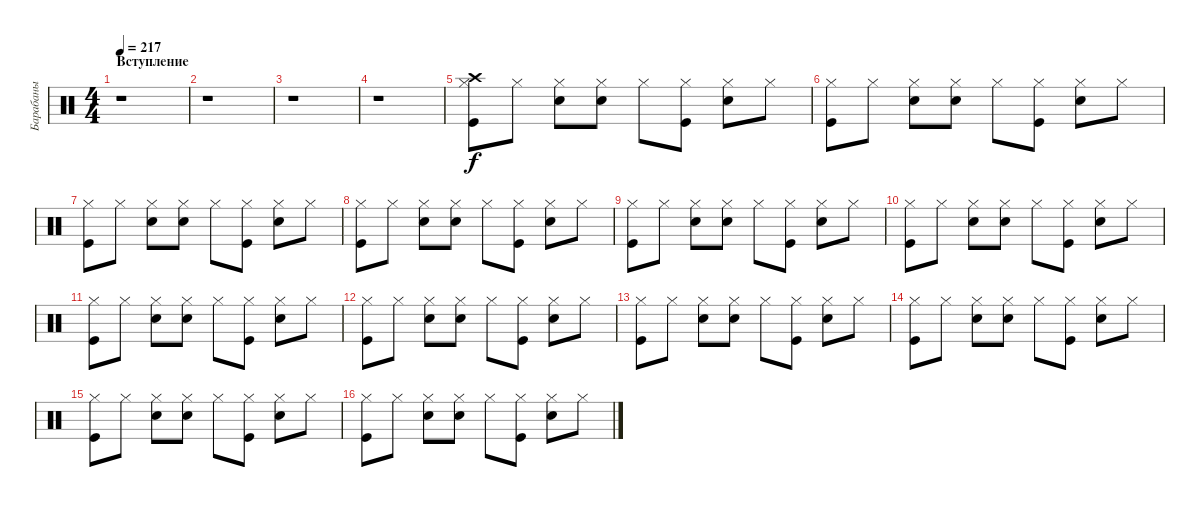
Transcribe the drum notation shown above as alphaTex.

\track ("Барабаны" "Барабаны") {instrument percussion}
\staff {score}
\articulation defaults
\ts (4 4)
\section ("" "Вступление")
\tempo 217
\clef neutral
\ks c
r.1{dy f} |
r.1 |
r.1 |
r.1 |
("Kick (hit)" "Hi-Hat (closed)" "Crash high (hit)").8 "Hi-Hat (closed)".8 ("Snare (hit) 2" "Hi-Hat (closed)").8 ("Snare (hit) 2" "Hi-Hat (closed)").8 "Hi-Hat (closed)".8 ("Kick (hit)" "Hi-Hat (closed)").8 ("Snare (hit) 2" "Hi-Hat (closed)").8 "Hi-Hat (closed)".8 |
("Kick (hit)" "Hi-Hat (closed)").8 "Hi-Hat (closed)".8 ("Snare (hit) 2" "Hi-Hat (closed)").8 ("Snare (hit) 2" "Hi-Hat (closed)").8 "Hi-Hat (closed)".8 ("Kick (hit)" "Hi-Hat (closed)").8 ("Snare (hit) 2" "Hi-Hat (closed)").8 "Hi-Hat (closed)".8 |
("Kick (hit)" "Hi-Hat (closed)").8 "Hi-Hat (closed)".8 ("Snare (hit) 2" "Hi-Hat (closed)").8 ("Snare (hit) 2" "Hi-Hat (closed)").8 "Hi-Hat (closed)".8 ("Kick (hit)" "Hi-Hat (closed)").8 ("Snare (hit) 2" "Hi-Hat (closed)").8 "Hi-Hat (closed)".8 |
("Kick (hit)" "Hi-Hat (closed)").8 "Hi-Hat (closed)".8 ("Snare (hit) 2" "Hi-Hat (closed)").8 ("Snare (hit) 2" "Hi-Hat (closed)").8 "Hi-Hat (closed)".8 ("Kick (hit)" "Hi-Hat (closed)").8 ("Snare (hit) 2" "Hi-Hat (closed)").8 "Hi-Hat (closed)".8 |
("Kick (hit)" "Hi-Hat (closed)").8 "Hi-Hat (closed)".8 ("Snare (hit) 2" "Hi-Hat (closed)").8 ("Snare (hit) 2" "Hi-Hat (closed)").8 "Hi-Hat (closed)".8 ("Kick (hit)" "Hi-Hat (closed)").8 ("Snare (hit) 2" "Hi-Hat (closed)").8 "Hi-Hat (closed)".8 |
("Kick (hit)" "Hi-Hat (closed)").8 "Hi-Hat (closed)".8 ("Snare (hit) 2" "Hi-Hat (closed)").8 ("Snare (hit) 2" "Hi-Hat (closed)").8 "Hi-Hat (closed)".8 ("Kick (hit)" "Hi-Hat (closed)").8 ("Snare (hit) 2" "Hi-Hat (closed)").8 "Hi-Hat (closed)".8 |
("Kick (hit)" "Hi-Hat (closed)").8 "Hi-Hat (closed)".8 ("Snare (hit) 2" "Hi-Hat (closed)").8 ("Snare (hit) 2" "Hi-Hat (closed)").8 "Hi-Hat (closed)".8 ("Kick (hit)" "Hi-Hat (closed)").8 ("Snare (hit) 2" "Hi-Hat (closed)").8 "Hi-Hat (closed)".8 |
("Kick (hit)" "Hi-Hat (closed)").8 "Hi-Hat (closed)".8 ("Snare (hit) 2" "Hi-Hat (closed)").8 ("Snare (hit) 2" "Hi-Hat (closed)").8 "Hi-Hat (closed)".8 ("Kick (hit)" "Hi-Hat (closed)").8 ("Snare (hit) 2" "Hi-Hat (closed)").8 "Hi-Hat (closed)".8 |
("Kick (hit)" "Hi-Hat (closed)").8 "Hi-Hat (closed)".8 ("Snare (hit) 2" "Hi-Hat (closed)").8 ("Snare (hit) 2" "Hi-Hat (closed)").8 "Hi-Hat (closed)".8 ("Kick (hit)" "Hi-Hat (closed)").8 ("Snare (hit) 2" "Hi-Hat (closed)").8 "Hi-Hat (closed)".8 |
("Kick (hit)" "Hi-Hat (closed)").8 "Hi-Hat (closed)".8 ("Snare (hit) 2" "Hi-Hat (closed)").8 ("Snare (hit) 2" "Hi-Hat (closed)").8 "Hi-Hat (closed)".8 ("Kick (hit)" "Hi-Hat (closed)").8 ("Snare (hit) 2" "Hi-Hat (closed)").8 "Hi-Hat (closed)".8 |
("Kick (hit)" "Hi-Hat (closed)").8 "Hi-Hat (closed)".8 ("Snare (hit) 2" "Hi-Hat (closed)").8 ("Snare (hit) 2" "Hi-Hat (closed)").8 "Hi-Hat (closed)".8 ("Kick (hit)" "Hi-Hat (closed)").8 ("Snare (hit) 2" "Hi-Hat (closed)").8 "Hi-Hat (closed)".8 |
("Kick (hit)" "Hi-Hat (closed)").8 "Hi-Hat (closed)".8 ("Snare (hit) 2" "Hi-Hat (closed)").8 ("Snare (hit) 2" "Hi-Hat (closed)").8 "Hi-Hat (closed)".8 ("Kick (hit)" "Hi-Hat (closed)").8 ("Snare (hit) 2" "Hi-Hat (closed)").8 "Hi-Hat (closed)".8
